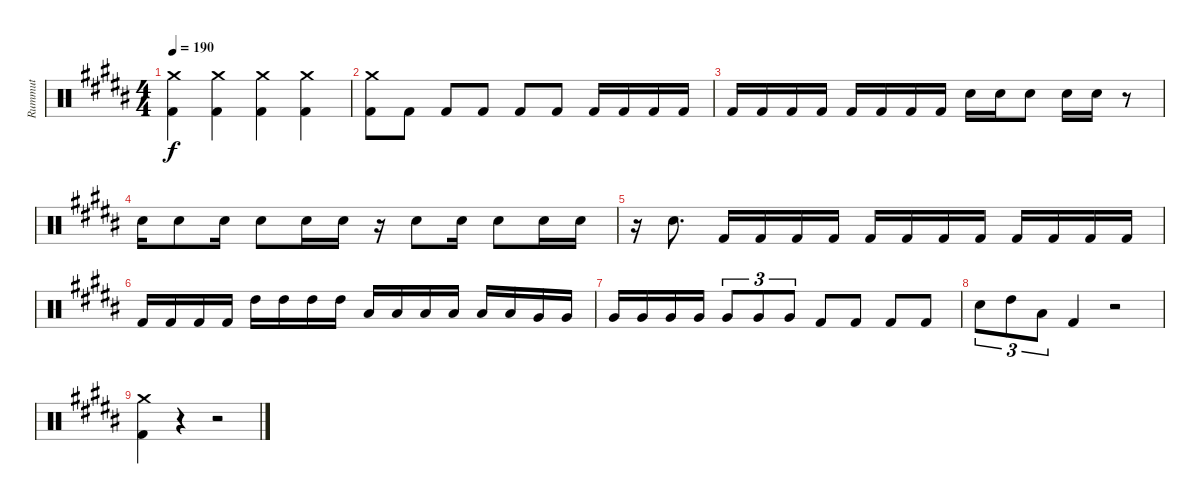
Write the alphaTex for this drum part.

\track ("Rummut" "Rummut") {instrument percussion}
\staff {score}
\articulation defaults
\ts (4 4)
\tempo 190
\clef neutral
\ks b
("Crash medium (hit)" "Kick (hit) 2").4{dy f} ("Crash medium (hit)" "Kick (hit) 2").4 ("Crash medium (hit)" "Kick (hit) 2").4 ("Crash medium (hit)" "Kick (hit) 2").4 |
("Crash medium (hit)" "Kick (hit) 2").8 "Kick (hit) 2".8 "Kick (hit) 2".8 "Kick (hit) 2".8 "Kick (hit) 2".8 "Kick (hit) 2".8 "Kick (hit) 2".16 "Kick (hit) 2".16 "Kick (hit) 2".16 "Kick (hit) 2".16 |
"Kick (hit) 2".16 "Kick (hit) 2".16 "Kick (hit) 2".16 "Kick (hit) 2".16 "Kick (hit) 2".16 "Kick (hit) 2".16 "Kick (hit) 2".16 "Kick (hit) 2".16 "Snare (hit) 2".16 "Snare (hit) 2".16 "Snare (hit) 2".8 "Snare (hit) 2".16 "Snare (hit) 2".16 r.8 |
"Snare (hit) 2".16 "Snare (hit) 2".8 "Snare (hit) 2".16 "Snare (hit) 2".8 "Snare (hit) 2".16 "Snare (hit) 2".16 r.16 "Snare (hit) 2".8 "Snare (hit) 2".16 "Snare (hit) 2".8 "Snare (hit) 2".16 "Snare (hit) 2".16 |
r.16 "Snare (hit) 2".8{d} "Kick (hit) 2".16 "Kick (hit) 2".16 "Kick (hit) 2".16 "Kick (hit) 2".16 "Kick (hit) 2".16 "Kick (hit) 2".16 "Kick (hit) 2".16 "Kick (hit) 2".16 "Kick (hit) 2".16 "Kick (hit) 2".16 "Kick (hit) 2".16 "Kick (hit) 2".16 |
"Kick (hit) 2".16 "Kick (hit) 2".16 "Kick (hit) 2".16 "Kick (hit) 2".16 "High Tom (hit)".16 "High Tom (hit)".16 "High Tom (hit)".16 "High Tom (hit)".16 "Low Tom (hit)".16 "Low Tom (hit)".16 "Low Tom (hit)".16 "Low Tom (hit)".16 "Low Tom (hit)".16 "Low Tom (hit)".16 "Very Low Tom (hit)".16 "Very Low Tom (hit)".16 |
"Very Low Tom (hit)".16 "Very Low Tom (hit)".16 "Very Low Tom (hit)".16 "Very Low Tom (hit)".16 "Very Low Tom (hit)".8{tu (3 2)} "Very Low Tom (hit)".8{tu (3 2)} "Very Low Tom (hit)".8{tu (3 2)} "Kick (hit) 2".8 "Kick (hit) 2".8 "Kick (hit) 2".8 "Kick (hit) 2".8 |
"Snare (hit) 2".8{tu (3 2)} "High Tom (hit)".8{tu (3 2)} "Low Tom (hit)".8{tu (3 2)} "Kick (hit) 2".4 r.2 |
("Crash medium (hit)" "Kick (hit) 2").4 r.4 r.2
